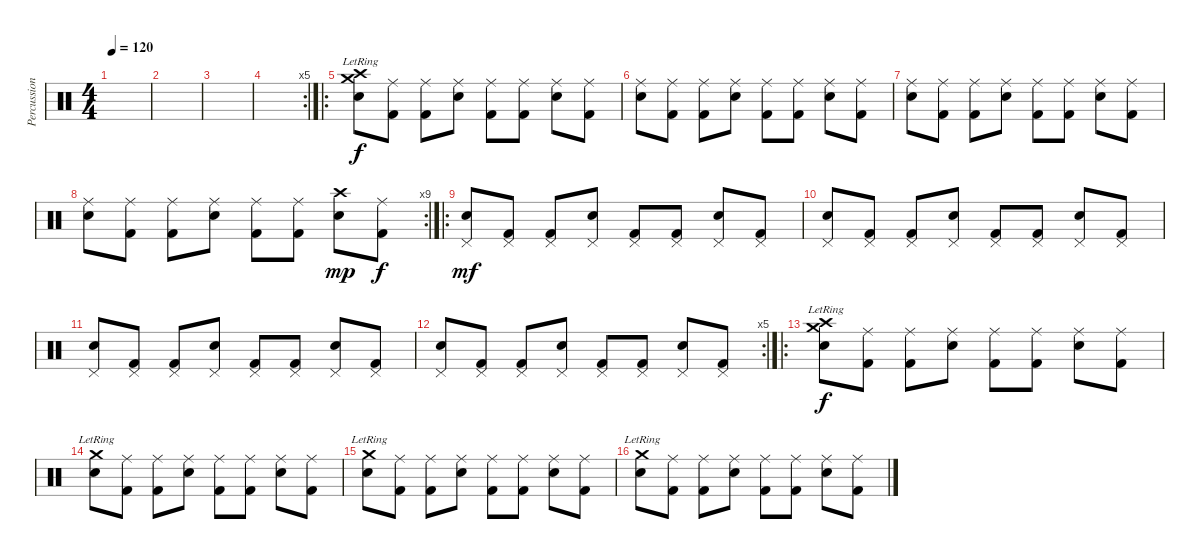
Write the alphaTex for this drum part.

\track ("Percussion" "Percussion") {instrument percussion}
\staff {score}
\articulation defaults
\ts (4 4)
\tempo 120
\clef neutral
\ks c
|
|
|
\rc 5
|
\ro
("Crash medium (hit)"{lr} "Crash high (hit)" "Snare (hit) 2").8 ("Ride (middle)" "Kick (hit) 2").8 ("Ride (middle)" "Kick (hit) 2").8 ("Ride (middle)" "Snare (hit) 2").8 ("Ride (middle)" "Kick (hit) 2").8 ("Ride (middle)" "Kick (hit) 2").8 ("Ride (middle)" "Snare (hit) 2").8 ("Ride (middle)" "Kick (hit) 2").8 |
("Ride (middle)" "Snare (hit) 2").8 ("Ride (middle)" "Kick (hit) 2").8 ("Ride (middle)" "Kick (hit) 2").8 ("Ride (middle)" "Snare (hit) 2").8 ("Ride (middle)" "Kick (hit) 2").8 ("Ride (middle)" "Kick (hit) 2").8 ("Ride (middle)" "Snare (hit) 2").8 ("Ride (middle)" "Kick (hit) 2").8 |
("Ride (middle)" "Snare (hit) 2").8 ("Ride (middle)" "Kick (hit) 2").8 ("Ride (middle)" "Kick (hit) 2").8 ("Ride (middle)" "Snare (hit) 2").8 ("Ride (middle)" "Kick (hit) 2").8 ("Ride (middle)" "Kick (hit) 2").8 ("Ride (middle)" "Snare (hit) 2").8 ("Ride (middle)" "Kick (hit) 2").8 |
\rc 9
("Ride (middle)" "Snare (hit) 2").8 ("Ride (middle)" "Kick (hit) 2").8 ("Ride (middle)" "Kick (hit) 2").8 ("Ride (middle)" "Snare (hit) 2").8 ("Ride (middle)" "Kick (hit) 2").8 ("Ride (middle)" "Kick (hit) 2").8 ("Crash high (hit)" "Snare (hit) 2").8{dy mp} ("Ride (middle)" "Kick (hit) 2").8{dy f} |
\ro
("Pedal Hi-Hat (hit)" "Snare (hit) 2").8{dy mf} ("Pedal Hi-Hat (hit)" "Kick (hit) 2").8 ("Pedal Hi-Hat (hit)" "Kick (hit) 2").8 ("Pedal Hi-Hat (hit)" "Snare (hit) 2").8 ("Pedal Hi-Hat (hit)" "Kick (hit) 2").8 ("Pedal Hi-Hat (hit)" "Kick (hit) 2").8 ("Pedal Hi-Hat (hit)" "Snare (hit) 2").8 ("Pedal Hi-Hat (hit)" "Kick (hit) 2").8 |
("Pedal Hi-Hat (hit)" "Snare (hit) 2").8 ("Pedal Hi-Hat (hit)" "Kick (hit) 2").8 ("Pedal Hi-Hat (hit)" "Kick (hit) 2").8 ("Pedal Hi-Hat (hit)" "Snare (hit) 2").8 ("Pedal Hi-Hat (hit)" "Kick (hit) 2").8 ("Pedal Hi-Hat (hit)" "Kick (hit) 2").8 ("Pedal Hi-Hat (hit)" "Snare (hit) 2").8 ("Pedal Hi-Hat (hit)" "Kick (hit) 2").8 |
("Pedal Hi-Hat (hit)" "Snare (hit) 2").8 ("Pedal Hi-Hat (hit)" "Kick (hit) 2").8 ("Pedal Hi-Hat (hit)" "Kick (hit) 2").8 ("Pedal Hi-Hat (hit)" "Snare (hit) 2").8 ("Pedal Hi-Hat (hit)" "Kick (hit) 2").8 ("Pedal Hi-Hat (hit)" "Kick (hit) 2").8 ("Pedal Hi-Hat (hit)" "Snare (hit) 2").8 ("Pedal Hi-Hat (hit)" "Kick (hit) 2").8 |
\rc 5
("Pedal Hi-Hat (hit)" "Snare (hit) 2").8 ("Pedal Hi-Hat (hit)" "Kick (hit) 2").8 ("Pedal Hi-Hat (hit)" "Kick (hit) 2").8 ("Pedal Hi-Hat (hit)" "Snare (hit) 2").8 ("Pedal Hi-Hat (hit)" "Kick (hit) 2").8 ("Pedal Hi-Hat (hit)" "Kick (hit) 2").8 ("Pedal Hi-Hat (hit)" "Snare (hit) 2").8 ("Pedal Hi-Hat (hit)" "Kick (hit) 2").8 |
\ro
("Crash medium (hit)"{lr} "Crash high (hit)" "Snare (hit) 2").8{dy f} ("Ride (middle)" "Kick (hit) 2").8 ("Ride (middle)" "Kick (hit) 2").8 ("Ride (middle)" "Snare (hit) 2").8 ("Ride (middle)" "Kick (hit) 2").8 ("Ride (middle)" "Kick (hit) 2").8 ("Ride (middle)" "Snare (hit) 2").8 ("Ride (middle)" "Kick (hit) 2").8 |
("Crash medium (hit)"{lr} "Snare (hit) 2").8 ("Ride (middle)" "Kick (hit) 2").8 ("Ride (middle)" "Kick (hit) 2").8 ("Ride (middle)" "Snare (hit) 2").8 ("Ride (middle)" "Kick (hit) 2").8 ("Ride (middle)" "Kick (hit) 2").8 ("Ride (middle)" "Snare (hit) 2").8 ("Ride (middle)" "Kick (hit) 2").8 |
("Crash medium (hit)"{lr} "Snare (hit) 2").8 ("Ride (middle)" "Kick (hit) 2").8 ("Ride (middle)" "Kick (hit) 2").8 ("Ride (middle)" "Snare (hit) 2").8 ("Ride (middle)" "Kick (hit) 2").8 ("Ride (middle)" "Kick (hit) 2").8 ("Ride (middle)" "Snare (hit) 2").8 ("Ride (middle)" "Kick (hit) 2").8 |
("Crash medium (hit)"{lr} "Snare (hit) 2").8 ("Ride (middle)" "Kick (hit) 2").8 ("Ride (middle)" "Kick (hit) 2").8 ("Ride (middle)" "Snare (hit) 2").8 ("Ride (middle)" "Kick (hit) 2").8 ("Ride (middle)" "Kick (hit) 2").8 ("Ride (middle)" "Snare (hit) 2").8 ("Ride (middle)" "Kick (hit) 2").8
